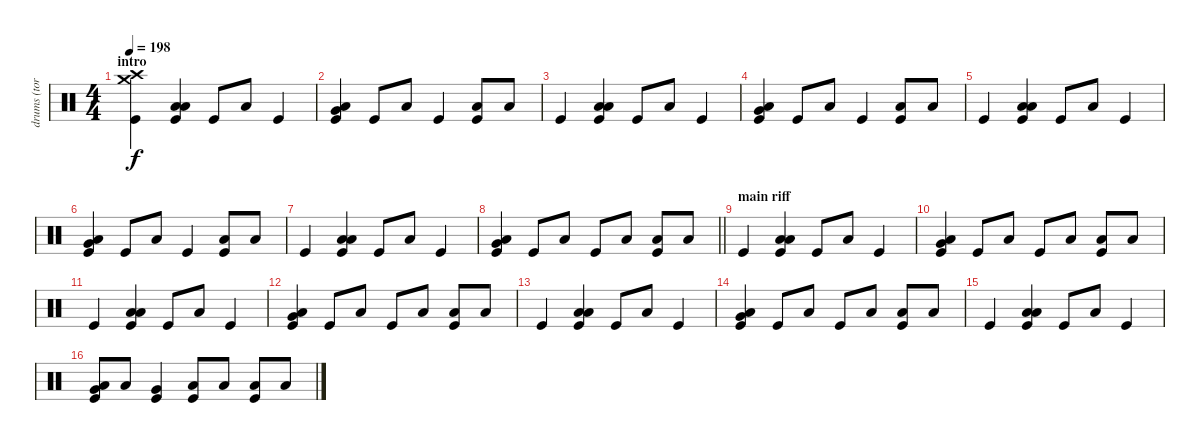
\track ("drums (tora)" "drums (tor") {instrument percussion}
\staff {score}
\articulation defaults
\ts (4 4)
\section ("" "intro")
\tempo 198
\clef neutral
\ks c
("Crash high (hit)" "Crash medium (hit)" "Kick (hit)").4{dy f} ("Low Tom (hit)" "Low Floor Tom (hit)" "Kick (hit)").4 "Kick (hit)".8 "Low Floor Tom (hit)".8 "Kick (hit)".4 |
("Very Low Tom (hit)" "Low Floor Tom (hit)" "Kick (hit)").4 "Kick (hit)".8 "Low Floor Tom (hit)".8 "Kick (hit)".4 ("Low Floor Tom (hit)" "Kick (hit)").8 "Low Floor Tom (hit)".8 |
"Kick (hit)".4 ("Low Tom (hit)" "Low Floor Tom (hit)" "Kick (hit)").4 "Kick (hit)".8 "Low Floor Tom (hit)".8 "Kick (hit)".4 |
("Very Low Tom (hit)" "Low Floor Tom (hit)" "Kick (hit)").4 "Kick (hit)".8 "Low Floor Tom (hit)".8 "Kick (hit)".4 ("Low Floor Tom (hit)" "Kick (hit)").8 "Low Floor Tom (hit)".8 |
"Kick (hit)".4 ("Low Tom (hit)" "Low Floor Tom (hit)" "Kick (hit)").4 "Kick (hit)".8 "Low Floor Tom (hit)".8 "Kick (hit)".4 |
("Very Low Tom (hit)" "Low Floor Tom (hit)" "Kick (hit)").4 "Kick (hit)".8 "Low Floor Tom (hit)".8 "Kick (hit)".4 ("Low Floor Tom (hit)" "Kick (hit)").8 "Low Floor Tom (hit)".8 |
"Kick (hit)".4 ("Low Tom (hit)" "Low Floor Tom (hit)" "Kick (hit)").4 "Kick (hit)".8 "Low Floor Tom (hit)".8 "Kick (hit)".4 |
\barLineRight lightlight
("Very Low Tom (hit)" "Low Floor Tom (hit)" "Kick (hit)").4 "Kick (hit)".8 "Low Floor Tom (hit)".8 "Kick (hit)".8 "Low Floor Tom (hit)".8 ("Low Floor Tom (hit)" "Kick (hit)").8 "Low Floor Tom (hit)".8 |
\section ("" "main riff")
"Kick (hit)".4 ("Low Tom (hit)" "Low Floor Tom (hit)" "Kick (hit)").4 "Kick (hit)".8 "Low Floor Tom (hit)".8 "Kick (hit)".4 |
("Very Low Tom (hit)" "Low Floor Tom (hit)" "Kick (hit)").4 "Kick (hit)".8 "Low Floor Tom (hit)".8 "Kick (hit)".8 "Low Floor Tom (hit)".8 ("Low Floor Tom (hit)" "Kick (hit)").8 "Low Floor Tom (hit)".8 |
"Kick (hit)".4 ("Low Tom (hit)" "Low Floor Tom (hit)" "Kick (hit)").4 "Kick (hit)".8 "Low Floor Tom (hit)".8 "Kick (hit)".4 |
("Very Low Tom (hit)" "Low Floor Tom (hit)" "Kick (hit)").4 "Kick (hit)".8 "Low Floor Tom (hit)".8 "Kick (hit)".8 "Low Floor Tom (hit)".8 ("Low Floor Tom (hit)" "Kick (hit)").8 "Low Floor Tom (hit)".8 |
"Kick (hit)".4 ("Low Tom (hit)" "Low Floor Tom (hit)" "Kick (hit)").4 "Kick (hit)".8 "Low Floor Tom (hit)".8 "Kick (hit)".4 |
("Very Low Tom (hit)" "Low Floor Tom (hit)" "Kick (hit)").4 "Kick (hit)".8 "Low Floor Tom (hit)".8 "Kick (hit)".8 "Low Floor Tom (hit)".8 ("Low Floor Tom (hit)" "Kick (hit)").8 "Low Floor Tom (hit)".8 |
"Kick (hit)".4 ("Low Tom (hit)" "Low Floor Tom (hit)" "Kick (hit)").4 "Kick (hit)".8 "Low Floor Tom (hit)".8 "Kick (hit)".4 |
("Very Low Tom (hit)" "Low Floor Tom (hit)" "Kick (hit)").8 "Low Floor Tom (hit)".8 ("Very Low Tom (hit)" "Kick (hit)").4 ("Low Floor Tom (hit)" "Kick (hit)").8 "Low Floor Tom (hit)".8 ("Low Floor Tom (hit)" "Kick (hit)").8 "Low Floor Tom (hit)".8
